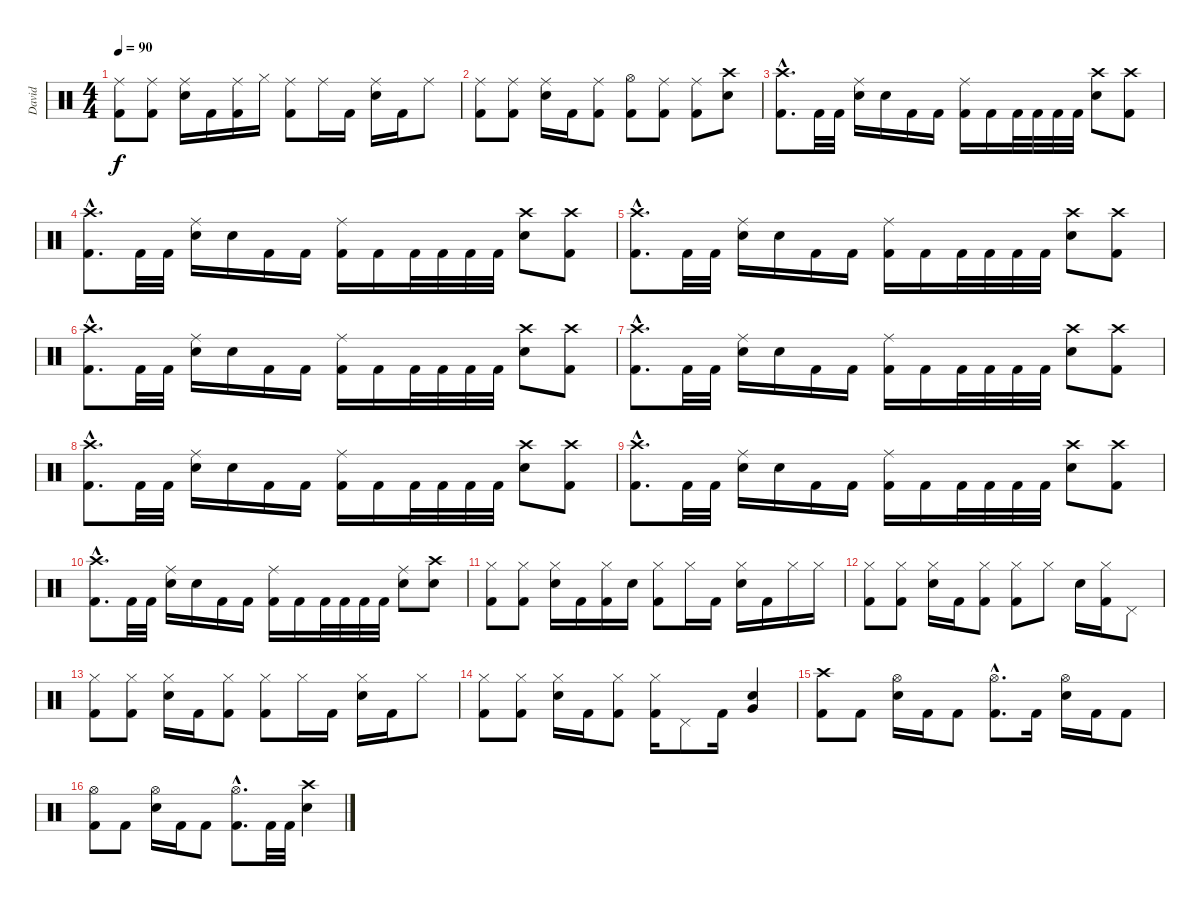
\track ("David" "David") {instrument percussion}
\staff {score}
\articulation defaults
\ts (4 4)
\tempo 90
\clef neutral
\ks c
("Ride (middle)" "Kick (hit) 2").8{dy f} ("Ride (middle)" "Kick (hit) 2").8 ("Ride (middle)" "Electric Snare (hit)").16 "Kick (hit) 2".16 ("Ride (middle)" "Kick (hit) 2").16 "Hi-Hat (closed)".16 ("Ride (middle)" "Kick (hit) 2").8 "Ride (middle)".16 "Kick (hit) 2".16 ("Ride (middle)" "Electric Snare (hit)").16 "Kick (hit) 2".16 "Ride (middle)".8 |
("Ride (middle)" "Kick (hit) 2").8 ("Ride (middle)" "Kick (hit) 2").8 ("Ride (middle)" "Electric Snare (hit)").16 "Kick (hit) 2".16 ("Ride (middle)" "Kick (hit) 2").8 ("Hi-Hat (open)" "Kick (hit) 2").8 ("Ride (middle)" "Kick (hit) 2").8 ("Ride (middle)" "Kick (hit) 2").8 ("Crash high (hit)" "Electric Snare (hit)").8 |
("Crash high (hit)"{hac} "Kick (hit) 2"{hac}).8{d} "Kick (hit) 2".32 "Kick (hit) 2".32 ("Ride (middle)" "Electric Snare (hit)").16 "Electric Snare (hit)".16 "Kick (hit) 2".16 "Kick (hit) 2".16 ("Ride (middle)" "Kick (hit) 2").16 "Kick (hit) 2".16 "Kick (hit) 2".32 "Kick (hit) 2".32 "Kick (hit) 2".32 "Kick (hit) 2".32 ("Crash high (hit)" "Electric Snare (hit)").8 ("Crash high (hit)" "Kick (hit) 2").8 |
("Crash high (hit)"{hac} "Kick (hit) 2"{hac}).8{d} "Kick (hit) 2".32 "Kick (hit) 2".32 ("Ride (middle)" "Electric Snare (hit)").16 "Electric Snare (hit)".16 "Kick (hit) 2".16 "Kick (hit) 2".16 ("Ride (middle)" "Kick (hit) 2").16 "Kick (hit) 2".16 "Kick (hit) 2".32 "Kick (hit) 2".32 "Kick (hit) 2".32 "Kick (hit) 2".32 ("Crash high (hit)" "Electric Snare (hit)").8 ("Crash high (hit)" "Kick (hit) 2").8 |
("Crash high (hit)"{hac} "Kick (hit) 2"{hac}).8{d} "Kick (hit) 2".32 "Kick (hit) 2".32 ("Ride (middle)" "Electric Snare (hit)").16 "Electric Snare (hit)".16 "Kick (hit) 2".16 "Kick (hit) 2".16 ("Ride (middle)" "Kick (hit) 2").16 "Kick (hit) 2".16 "Kick (hit) 2".32 "Kick (hit) 2".32 "Kick (hit) 2".32 "Kick (hit) 2".32 ("Crash high (hit)" "Electric Snare (hit)").8 ("Crash high (hit)" "Kick (hit) 2").8 |
("Crash high (hit)"{hac} "Kick (hit) 2"{hac}).8{d} "Kick (hit) 2".32 "Kick (hit) 2".32 ("Ride (middle)" "Electric Snare (hit)").16 "Electric Snare (hit)".16 "Kick (hit) 2".16 "Kick (hit) 2".16 ("Ride (middle)" "Kick (hit) 2").16 "Kick (hit) 2".16 "Kick (hit) 2".32 "Kick (hit) 2".32 "Kick (hit) 2".32 "Kick (hit) 2".32 ("Crash high (hit)" "Electric Snare (hit)").8 ("Crash high (hit)" "Kick (hit) 2").8 |
("Crash high (hit)"{hac} "Kick (hit) 2"{hac}).8{d} "Kick (hit) 2".32 "Kick (hit) 2".32 ("Ride (middle)" "Electric Snare (hit)").16 "Electric Snare (hit)".16 "Kick (hit) 2".16 "Kick (hit) 2".16 ("Ride (middle)" "Kick (hit) 2").16 "Kick (hit) 2".16 "Kick (hit) 2".32 "Kick (hit) 2".32 "Kick (hit) 2".32 "Kick (hit) 2".32 ("Crash high (hit)" "Electric Snare (hit)").8 ("Crash high (hit)" "Kick (hit) 2").8 |
("Crash high (hit)"{hac} "Kick (hit) 2"{hac}).8{d} "Kick (hit) 2".32 "Kick (hit) 2".32 ("Ride (middle)" "Electric Snare (hit)").16 "Electric Snare (hit)".16 "Kick (hit) 2".16 "Kick (hit) 2".16 ("Ride (middle)" "Kick (hit) 2").16 "Kick (hit) 2".16 "Kick (hit) 2".32 "Kick (hit) 2".32 "Kick (hit) 2".32 "Kick (hit) 2".32 ("Crash high (hit)" "Electric Snare (hit)").8 ("Crash high (hit)" "Kick (hit) 2").8 |
("Crash high (hit)"{hac} "Kick (hit) 2"{hac}).8{d} "Kick (hit) 2".32 "Kick (hit) 2".32 ("Ride (middle)" "Electric Snare (hit)").16 "Electric Snare (hit)".16 "Kick (hit) 2".16 "Kick (hit) 2".16 ("Ride (middle)" "Kick (hit) 2").16 "Kick (hit) 2".16 "Kick (hit) 2".32 "Kick (hit) 2".32 "Kick (hit) 2".32 "Kick (hit) 2".32 ("Crash high (hit)" "Electric Snare (hit)").8 ("Crash high (hit)" "Kick (hit) 2").8 |
("Crash high (hit)"{hac} "Kick (hit) 2"{hac}).8{d} "Kick (hit) 2".32 "Kick (hit) 2".32 ("Ride (middle)" "Electric Snare (hit)").16 "Electric Snare (hit)".16 "Kick (hit) 2".16 "Kick (hit) 2".16 ("Ride (middle)" "Kick (hit) 2").16 "Kick (hit) 2".16 "Kick (hit) 2".32 "Kick (hit) 2".32 "Kick (hit) 2".32 "Kick (hit) 2".32 ("Ride (middle)" "Electric Snare (hit)").8 ("Crash high (hit)" "Electric Snare (hit)").8 |
("Hi-Hat (closed)" "Kick (hit) 2").8 ("Hi-Hat (closed)" "Kick (hit) 2").8 ("Hi-Hat (closed)" "Electric Snare (hit)").16 "Kick (hit) 2".16 ("Hi-Hat (closed)" "Kick (hit) 2").16 "Electric Snare (hit)".16 ("Hi-Hat (closed)" "Kick (hit) 2").8 "Hi-Hat (closed)".16 "Kick (hit) 2".16 ("Hi-Hat (closed)" "Electric Snare (hit)").16 "Kick (hit) 2".16 "Hi-Hat (closed)".16 "Hi-Hat (closed)".16 |
("Hi-Hat (closed)" "Kick (hit) 2").8 ("Hi-Hat (closed)" "Kick (hit) 2").8 ("Hi-Hat (closed)" "Electric Snare (hit)").16 "Kick (hit) 2".16 ("Hi-Hat (closed)" "Kick (hit) 2").8 ("Hi-Hat (closed)" "Kick (hit) 2").8 "Hi-Hat (closed)".8 "Electric Snare (hit)".16 ("Hi-Hat (closed)" "Kick (hit) 2").16 "Pedal Hi-Hat (hit)".8 |
("Hi-Hat (closed)" "Kick (hit) 2").8 ("Hi-Hat (closed)" "Kick (hit) 2").8 ("Hi-Hat (closed)" "Electric Snare (hit)").16 "Kick (hit) 2".16 ("Hi-Hat (closed)" "Kick (hit) 2").8 ("Hi-Hat (closed)" "Kick (hit) 2").8 "Hi-Hat (closed)".16 "Kick (hit) 2".16 ("Hi-Hat (closed)" "Electric Snare (hit)").16 "Kick (hit) 2".16 "Hi-Hat (closed)".8 |
("Hi-Hat (closed)" "Kick (hit) 2").8 ("Hi-Hat (closed)" "Kick (hit) 2").8 ("Hi-Hat (closed)" "Electric Snare (hit)").16 "Kick (hit) 2".16 ("Hi-Hat (closed)" "Kick (hit) 2").8 ("Hi-Hat (closed)" "Kick (hit) 2").16 "Pedal Hi-Hat (hit)".8 "Kick (hit) 2".16 ("Very Low Tom (hit)" "Electric Snare (hit)").4 |
("Crash high (hit)" "Kick (hit) 2").8 "Kick (hit) 2".8 ("Hi-Hat (open)" "Electric Snare (hit)").16 "Kick (hit) 2".16 "Kick (hit) 2".8 ("Hi-Hat (open)"{hac} "Kick (hit) 2"{hac}).8{d} "Kick (hit) 2".16 ("Hi-Hat (open)" "Electric Snare (hit)").16 "Kick (hit) 2".16 "Kick (hit) 2".8 |
("Hi-Hat (open)" "Kick (hit) 2").8 "Kick (hit) 2".8 ("Hi-Hat (open)" "Electric Snare (hit)").16 "Kick (hit) 2".16 "Kick (hit) 2".8 ("Hi-Hat (open)"{hac} "Kick (hit) 2"{hac}).8{d} "Kick (hit) 2".32 "Kick (hit) 2".32 ("Crash high (hit)" "Electric Snare (hit)").4
